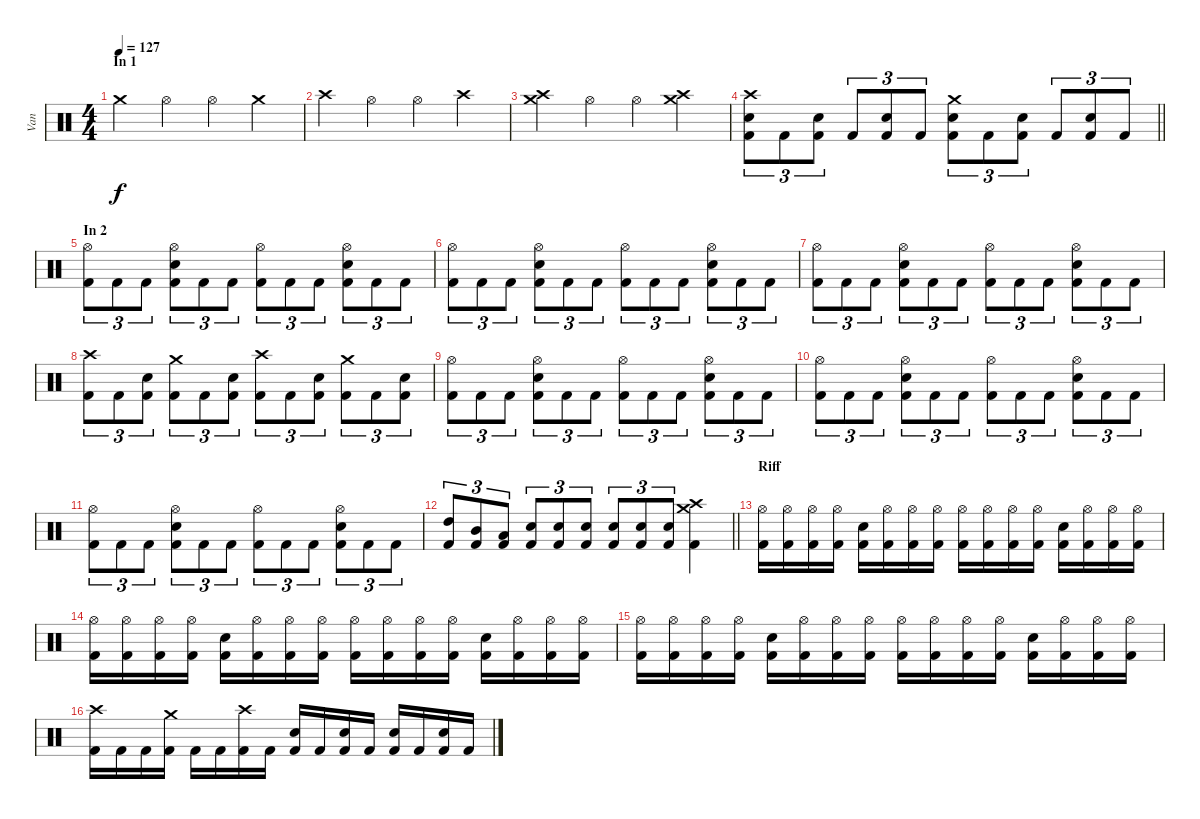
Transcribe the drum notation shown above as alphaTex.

\track ("Van" "Van") {instrument percussion}
\staff {score}
\articulation defaults
\ts (4 4)
\section ("" "In 1")
\tempo 127
\clef neutral
\ks c "Crash medium (hit)".4{dy f} "Hi-Hat (open)".4 "Hi-Hat (open)".4 "Crash medium (hit)".4
|
"Crash high (hit)".4 "Hi-Hat (open)".4 "Hi-Hat (open)".4 "Crash high (hit)".4 |
("Crash medium (hit)" "Crash high (hit)").4 "Hi-Hat (open)".4 "Hi-Hat (open)".4 ("Crash medium (hit)" "Crash high (hit)").4 |
\barLineRight lightlight
("Kick (hit) 2" "Electric Snare (hit)" "Crash high (hit)").8{tu (3 2)} "Kick (hit) 2".8{tu (3 2)} ("Kick (hit) 2" "Electric Snare (hit)").8{tu (3 2)} "Kick (hit) 2".8{tu (3 2)} ("Kick (hit) 2" "Electric Snare (hit)").8{tu (3 2)} "Kick (hit) 2".8{tu (3 2)} ("Kick (hit) 2" "Electric Snare (hit)" "Crash medium (hit)").8{tu (3 2)} "Kick (hit) 2".8{tu (3 2)} ("Kick (hit) 2" "Electric Snare (hit)").8{tu (3 2)} "Kick (hit) 2".8{tu (3 2)} ("Kick (hit) 2" "Electric Snare (hit)").8{tu (3 2)} "Kick (hit) 2".8{tu (3 2)} |
\section ("" "In 2")
("Kick (hit) 2" "Hi-Hat (open)").8{tu (3 2)} "Kick (hit) 2".8{tu (3 2)} "Kick (hit) 2".8{tu (3 2)} ("Kick (hit) 2" "Hi-Hat (open)" "Electric Snare (hit)").8{tu (3 2)} "Kick (hit) 2".8{tu (3 2)} "Kick (hit) 2".8{tu (3 2)} ("Kick (hit) 2" "Hi-Hat (open)").8{tu (3 2)} "Kick (hit) 2".8{tu (3 2)} "Kick (hit) 2".8{tu (3 2)} ("Kick (hit) 2" "Hi-Hat (open)" "Electric Snare (hit)").8{tu (3 2)} "Kick (hit) 2".8{tu (3 2)} "Kick (hit) 2".8{tu (3 2)} |
("Kick (hit) 2" "Hi-Hat (open)").8{tu (3 2)} "Kick (hit) 2".8{tu (3 2)} "Kick (hit) 2".8{tu (3 2)} ("Kick (hit) 2" "Hi-Hat (open)" "Electric Snare (hit)").8{tu (3 2)} "Kick (hit) 2".8{tu (3 2)} "Kick (hit) 2".8{tu (3 2)} ("Kick (hit) 2" "Hi-Hat (open)").8{tu (3 2)} "Kick (hit) 2".8{tu (3 2)} "Kick (hit) 2".8{tu (3 2)} ("Kick (hit) 2" "Hi-Hat (open)" "Electric Snare (hit)").8{tu (3 2)} "Kick (hit) 2".8{tu (3 2)} "Kick (hit) 2".8{tu (3 2)} |
("Kick (hit) 2" "Hi-Hat (open)").8{tu (3 2)} "Kick (hit) 2".8{tu (3 2)} "Kick (hit) 2".8{tu (3 2)} ("Kick (hit) 2" "Hi-Hat (open)" "Electric Snare (hit)").8{tu (3 2)} "Kick (hit) 2".8{tu (3 2)} "Kick (hit) 2".8{tu (3 2)} ("Kick (hit) 2" "Hi-Hat (open)").8{tu (3 2)} "Kick (hit) 2".8{tu (3 2)} "Kick (hit) 2".8{tu (3 2)} ("Kick (hit) 2" "Hi-Hat (open)" "Electric Snare (hit)").8{tu (3 2)} "Kick (hit) 2".8{tu (3 2)} "Kick (hit) 2".8{tu (3 2)} |
("Kick (hit) 2" "Crash high (hit)").8{tu (3 2)} "Kick (hit) 2".8{tu (3 2)} ("Kick (hit) 2" "Electric Snare (hit)").8{tu (3 2)} ("Kick (hit) 2" "Crash medium (hit)").8{tu (3 2)} "Kick (hit) 2".8{tu (3 2)} ("Kick (hit) 2" "Electric Snare (hit)").8{tu (3 2)} ("Kick (hit) 2" "Crash high (hit)").8{tu (3 2)} "Kick (hit) 2".8{tu (3 2)} ("Kick (hit) 2" "Electric Snare (hit)").8{tu (3 2)} ("Kick (hit) 2" "Crash medium (hit)").8{tu (3 2)} "Kick (hit) 2".8{tu (3 2)} ("Kick (hit) 2" "Electric Snare (hit)").8{tu (3 2)} |
("Kick (hit) 2" "Hi-Hat (open)").8{tu (3 2)} "Kick (hit) 2".8{tu (3 2)} "Kick (hit) 2".8{tu (3 2)} ("Kick (hit) 2" "Hi-Hat (open)" "Electric Snare (hit)").8{tu (3 2)} "Kick (hit) 2".8{tu (3 2)} "Kick (hit) 2".8{tu (3 2)} ("Kick (hit) 2" "Hi-Hat (open)").8{tu (3 2)} "Kick (hit) 2".8{tu (3 2)} "Kick (hit) 2".8{tu (3 2)} ("Kick (hit) 2" "Hi-Hat (open)" "Electric Snare (hit)").8{tu (3 2)} "Kick (hit) 2".8{tu (3 2)} "Kick (hit) 2".8{tu (3 2)} |
("Kick (hit) 2" "Hi-Hat (open)").8{tu (3 2)} "Kick (hit) 2".8{tu (3 2)} "Kick (hit) 2".8{tu (3 2)} ("Kick (hit) 2" "Hi-Hat (open)" "Electric Snare (hit)").8{tu (3 2)} "Kick (hit) 2".8{tu (3 2)} "Kick (hit) 2".8{tu (3 2)} ("Kick (hit) 2" "Hi-Hat (open)").8{tu (3 2)} "Kick (hit) 2".8{tu (3 2)} "Kick (hit) 2".8{tu (3 2)} ("Kick (hit) 2" "Hi-Hat (open)" "Electric Snare (hit)").8{tu (3 2)} "Kick (hit) 2".8{tu (3 2)} "Kick (hit) 2".8{tu (3 2)} |
("Kick (hit) 2" "Hi-Hat (open)").8{tu (3 2)} "Kick (hit) 2".8{tu (3 2)} "Kick (hit) 2".8{tu (3 2)} ("Kick (hit) 2" "Hi-Hat (open)" "Electric Snare (hit)").8{tu (3 2)} "Kick (hit) 2".8{tu (3 2)} "Kick (hit) 2".8{tu (3 2)} ("Kick (hit) 2" "Hi-Hat (open)").8{tu (3 2)} "Kick (hit) 2".8{tu (3 2)} "Kick (hit) 2".8{tu (3 2)} ("Kick (hit) 2" "Hi-Hat (open)" "Electric Snare (hit)").8{tu (3 2)} "Kick (hit) 2".8{tu (3 2)} "Kick (hit) 2".8{tu (3 2)} |
\barLineRight lightlight
("Kick (hit) 2" "High Tom (hit)").8{tu (3 2)} ("Kick (hit) 2" "Mid Tom (hit)").8{tu (3 2)} ("Kick (hit) 2" "Low Tom (hit)").8{tu (3 2)} ("Kick (hit) 2" "Electric Snare (hit)").8{tu (3 2)} ("Kick (hit) 2" "Electric Snare (hit)").8{tu (3 2)} ("Kick (hit) 2" "Electric Snare (hit)").8{tu (3 2)} ("Kick (hit) 2" "Electric Snare (hit)").8{tu (3 2)} ("Kick (hit) 2" "Electric Snare (hit)").8{tu (3 2)} ("Kick (hit) 2" "Electric Snare (hit)").8{tu (3 2)} ("Kick (hit) 2" "Crash high (hit)" "Crash medium (hit)").4 |
\section ("" "Riff")
("Kick (hit) 2" "Hi-Hat (open)").16 ("Kick (hit) 2" "Hi-Hat (open)").16 ("Kick (hit) 2" "Hi-Hat (open)").16 ("Kick (hit) 2" "Hi-Hat (open)").16 ("Kick (hit) 2" "Electric Snare (hit)").16 ("Kick (hit) 2" "Hi-Hat (open)").16 ("Kick (hit) 2" "Hi-Hat (open)").16 ("Kick (hit) 2" "Hi-Hat (open)").16 ("Kick (hit) 2" "Hi-Hat (open)").16 ("Kick (hit) 2" "Hi-Hat (open)").16 ("Kick (hit) 2" "Hi-Hat (open)").16 ("Kick (hit) 2" "Hi-Hat (open)").16 ("Kick (hit) 2" "Electric Snare (hit)").16 ("Kick (hit) 2" "Hi-Hat (open)").16 ("Kick (hit) 2" "Hi-Hat (open)").16 ("Kick (hit) 2" "Hi-Hat (open)").16 |
("Kick (hit) 2" "Hi-Hat (open)").16 ("Kick (hit) 2" "Hi-Hat (open)").16 ("Kick (hit) 2" "Hi-Hat (open)").16 ("Kick (hit) 2" "Hi-Hat (open)").16 ("Kick (hit) 2" "Electric Snare (hit)").16 ("Kick (hit) 2" "Hi-Hat (open)").16 ("Kick (hit) 2" "Hi-Hat (open)").16 ("Kick (hit) 2" "Hi-Hat (open)").16 ("Kick (hit) 2" "Hi-Hat (open)").16 ("Kick (hit) 2" "Hi-Hat (open)").16 ("Kick (hit) 2" "Hi-Hat (open)").16 ("Kick (hit) 2" "Hi-Hat (open)").16 ("Kick (hit) 2" "Electric Snare (hit)").16 ("Kick (hit) 2" "Hi-Hat (open)").16 ("Kick (hit) 2" "Hi-Hat (open)").16 ("Kick (hit) 2" "Hi-Hat (open)").16 |
("Kick (hit) 2" "Hi-Hat (open)").16 ("Kick (hit) 2" "Hi-Hat (open)").16 ("Kick (hit) 2" "Hi-Hat (open)").16 ("Kick (hit) 2" "Hi-Hat (open)").16 ("Kick (hit) 2" "Electric Snare (hit)").16 ("Kick (hit) 2" "Hi-Hat (open)").16 ("Kick (hit) 2" "Hi-Hat (open)").16 ("Kick (hit) 2" "Hi-Hat (open)").16 ("Kick (hit) 2" "Hi-Hat (open)").16 ("Kick (hit) 2" "Hi-Hat (open)").16 ("Kick (hit) 2" "Hi-Hat (open)").16 ("Kick (hit) 2" "Hi-Hat (open)").16 ("Kick (hit) 2" "Electric Snare (hit)").16 ("Kick (hit) 2" "Hi-Hat (open)").16 ("Kick (hit) 2" "Hi-Hat (open)").16 ("Kick (hit) 2" "Hi-Hat (open)").16 |
("Kick (hit) 2" "Crash high (hit)").16 "Kick (hit) 2".16 "Kick (hit) 2".16 ("Kick (hit) 2" "Crash medium (hit)").16 "Kick (hit) 2".16 "Kick (hit) 2".16 ("Kick (hit) 2" "Crash high (hit)").16 "Kick (hit) 2".16 ("Kick (hit) 2" "Electric Snare (hit)").16 "Kick (hit) 2".16 ("Kick (hit) 2" "Electric Snare (hit)").16 "Kick (hit) 2".16 ("Kick (hit) 2" "Electric Snare (hit)").16 "Kick (hit) 2".16 ("Kick (hit) 2" "Electric Snare (hit)").16 "Kick (hit) 2".16
